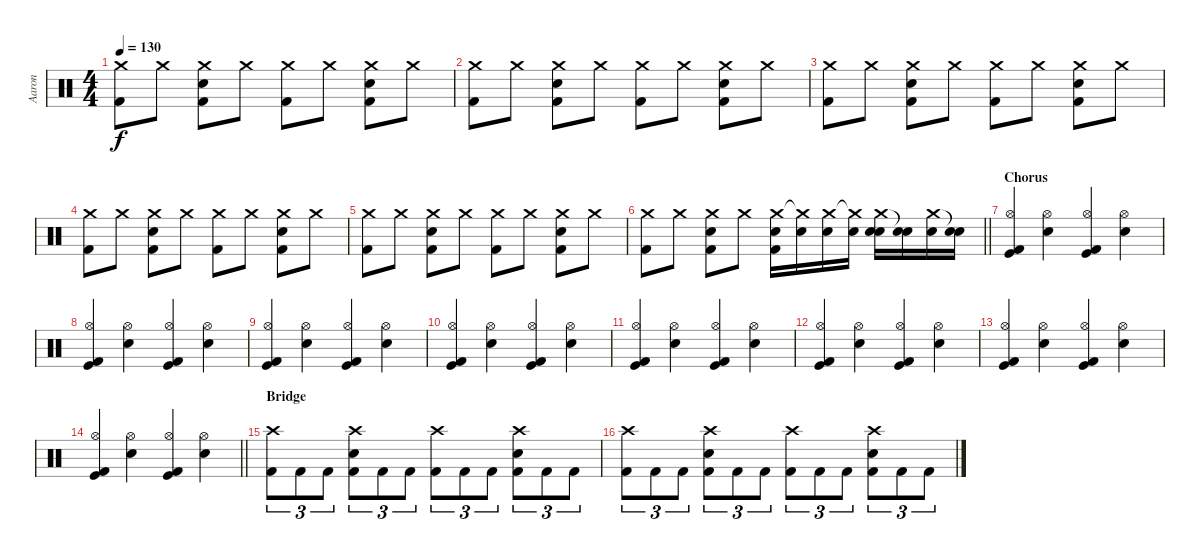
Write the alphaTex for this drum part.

\track ("Aaron" "Aaron") {instrument percussion}
\staff {score}
\articulation defaults
\ts (4 4)
\tempo 130
\clef neutral
\ks c
("Crash medium (hit)" "Kick (hit) 2").8{dy f} "Crash medium (hit)".8 ("Crash medium (hit)" "Snare (hit) 2" "Kick (hit) 2").8 "Crash medium (hit)".8 ("Crash medium (hit)" "Kick (hit) 2").8 "Crash medium (hit)".8 ("Crash medium (hit)" "Snare (hit) 2" "Kick (hit) 2").8 "Crash medium (hit)".8 |
("Crash medium (hit)" "Kick (hit) 2").8 "Crash medium (hit)".8 ("Crash medium (hit)" "Snare (hit) 2" "Kick (hit) 2").8 "Crash medium (hit)".8 ("Crash medium (hit)" "Kick (hit) 2").8 "Crash medium (hit)".8 ("Crash medium (hit)" "Snare (hit) 2" "Kick (hit) 2").8 "Crash medium (hit)".8 |
("Crash medium (hit)" "Kick (hit) 2").8 "Crash medium (hit)".8 ("Crash medium (hit)" "Snare (hit) 2" "Kick (hit) 2").8 "Crash medium (hit)".8 ("Crash medium (hit)" "Kick (hit) 2").8 "Crash medium (hit)".8 ("Crash medium (hit)" "Snare (hit) 2" "Kick (hit) 2").8 "Crash medium (hit)".8 |
("Crash medium (hit)" "Kick (hit) 2").8 "Crash medium (hit)".8 ("Crash medium (hit)" "Snare (hit) 2" "Kick (hit) 2").8 "Crash medium (hit)".8 ("Crash medium (hit)" "Kick (hit) 2").8 "Crash medium (hit)".8 ("Crash medium (hit)" "Snare (hit) 2" "Kick (hit) 2").8 "Crash medium (hit)".8 |
("Crash medium (hit)" "Kick (hit) 2").8 "Crash medium (hit)".8 ("Crash medium (hit)" "Snare (hit) 2" "Kick (hit) 2").8 "Crash medium (hit)".8 ("Crash medium (hit)" "Kick (hit) 2").8 "Crash medium (hit)".8 ("Crash medium (hit)" "Snare (hit) 2" "Kick (hit) 2").8 "Crash medium (hit)".8 |
\barLineRight lightlight
("Crash medium (hit)" "Kick (hit) 2").8 "Crash medium (hit)".8 ("Crash medium (hit)" "Snare (hit) 2" "Kick (hit) 2").8 "Crash medium (hit)".8 ("Crash medium (hit)" "Snare (hit) 2" "Kick (hit) 2").16 ("Crash medium (hit)"{t} "Snare (hit) 2").16 ("Crash medium (hit)" "Snare (hit) 2").16 ("Crash medium (hit)"{t} "Snare (hit) 2").16 ("Crash medium (hit)" "Snare (hit) 2" "Snare (hit) 2").16 ("Snare (hit)"{t} "Snare (hit) 2").16 ("Crash medium (hit)" "Snare (hit) 2").16 ("Snare (hit)"{t} "Snare (hit) 2").16 |
\section ("" "Chorus")
("Hi-Hat (open)" "Kick (hit)" "Kick (hit) 2").4 ("Hi-Hat (open)" "Snare (hit) 2").4 ("Hi-Hat (open)" "Kick (hit) 2" "Kick (hit)").4 ("Hi-Hat (open)" "Snare (hit) 2").4 |
("Hi-Hat (open)" "Kick (hit)" "Kick (hit) 2").4 ("Hi-Hat (open)" "Snare (hit) 2").4 ("Hi-Hat (open)" "Kick (hit) 2" "Kick (hit)").4 ("Hi-Hat (open)" "Snare (hit) 2").4 |
("Hi-Hat (open)" "Kick (hit)" "Kick (hit) 2").4 ("Hi-Hat (open)" "Snare (hit) 2").4 ("Hi-Hat (open)" "Kick (hit) 2" "Kick (hit)").4 ("Hi-Hat (open)" "Snare (hit) 2").4 |
("Hi-Hat (open)" "Kick (hit)" "Kick (hit) 2").4 ("Hi-Hat (open)" "Snare (hit) 2").4 ("Hi-Hat (open)" "Kick (hit) 2" "Kick (hit)").4 ("Hi-Hat (open)" "Snare (hit) 2").4 |
("Hi-Hat (open)" "Kick (hit)" "Kick (hit) 2").4 ("Hi-Hat (open)" "Snare (hit) 2").4 ("Hi-Hat (open)" "Kick (hit) 2" "Kick (hit)").4 ("Hi-Hat (open)" "Snare (hit) 2").4 |
("Hi-Hat (open)" "Kick (hit)" "Kick (hit) 2").4 ("Hi-Hat (open)" "Snare (hit) 2").4 ("Hi-Hat (open)" "Kick (hit) 2" "Kick (hit)").4 ("Hi-Hat (open)" "Snare (hit) 2").4 |
("Hi-Hat (open)" "Kick (hit)" "Kick (hit) 2").4 ("Hi-Hat (open)" "Snare (hit) 2").4 ("Hi-Hat (open)" "Kick (hit) 2" "Kick (hit)").4 ("Hi-Hat (open)" "Snare (hit) 2").4 |
\barLineRight lightlight
("Hi-Hat (open)" "Kick (hit)" "Kick (hit) 2").4 ("Hi-Hat (open)" "Snare (hit) 2").4 ("Hi-Hat (open)" "Kick (hit) 2" "Kick (hit)").4 ("Hi-Hat (open)" "Snare (hit) 2").4 |
\section ("" "Bridge")
("Crash high (hit)" "Kick (hit) 2").8{tu (3 2)} "Kick (hit) 2".8{tu (3 2)} "Kick (hit) 2".8{tu (3 2)} ("Crash high (hit)" "Kick (hit) 2" "Snare (hit) 2").8{tu (3 2)} "Kick (hit) 2".8{tu (3 2)} "Kick (hit) 2".8{tu (3 2)} ("Crash high (hit)" "Kick (hit) 2").8{tu (3 2)} "Kick (hit) 2".8{tu (3 2)} "Kick (hit) 2".8{tu (3 2)} ("Crash high (hit)" "Kick (hit) 2" "Snare (hit) 2").8{tu (3 2)} "Kick (hit) 2".8{tu (3 2)} "Kick (hit) 2".8{tu (3 2)} |
("Crash high (hit)" "Kick (hit) 2").8{tu (3 2)} "Kick (hit) 2".8{tu (3 2)} "Kick (hit) 2".8{tu (3 2)} ("Crash high (hit)" "Kick (hit) 2" "Snare (hit) 2").8{tu (3 2)} "Kick (hit) 2".8{tu (3 2)} "Kick (hit) 2".8{tu (3 2)} ("Crash high (hit)" "Kick (hit) 2").8{tu (3 2)} "Kick (hit) 2".8{tu (3 2)} "Kick (hit) 2".8{tu (3 2)} ("Crash high (hit)" "Kick (hit) 2" "Snare (hit) 2").8{tu (3 2)} "Kick (hit) 2".8{tu (3 2)} "Kick (hit) 2".8{tu (3 2)}
